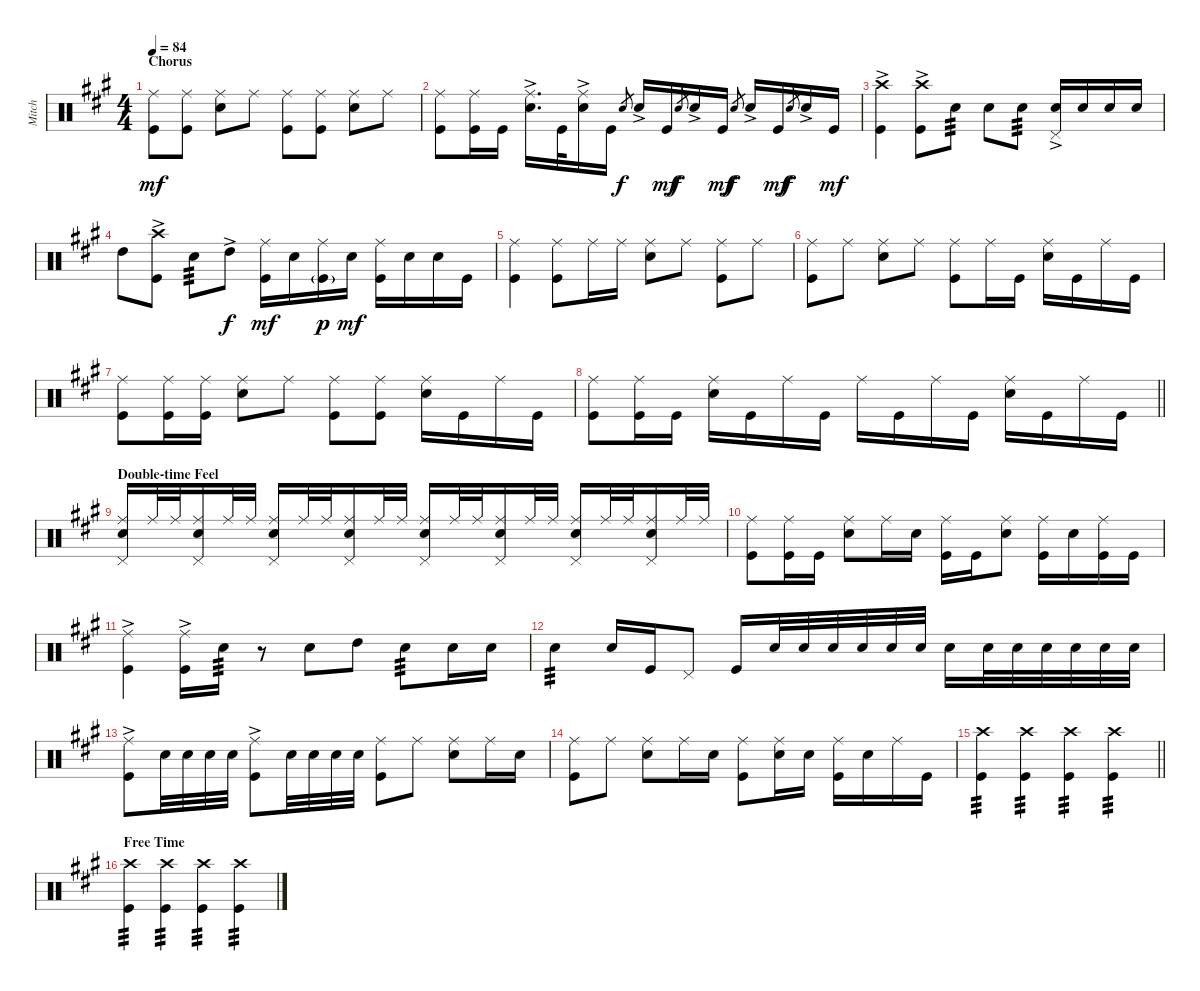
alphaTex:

\track ("Mitch" "Mitch") {instrument percussion}
\staff {score}
\articulation defaults
\ts (4 4)
\section ("" "Chorus")
\tempo 84
\clef neutral
\ks a
("Ride (middle)" "Kick (hit)").8{dy mf} ("Ride (middle)" "Kick (hit)").8 ("Ride (middle)" "Snare (hit) 2").8 "Ride (middle)".8 ("Ride (middle)" "Kick (hit)").8 ("Ride (middle)" "Kick (hit)").8 ("Ride (middle)" "Snare (hit) 2").8 "Ride (middle)".8 |
("Ride (middle)" "Kick (hit)").8 ("Ride (middle)" "Kick (hit)").16 "Kick (hit)".16 ("Ride (middle)" "Snare (hit) 2"{ac}).16{d} "Kick (hit)".32 ("Ride (middle)" "Snare (hit) 2"{ac}).16 "Kick (hit)".16 "Snare (hit) 2".8{gr dy f} "Snare (hit) 2"{ac}.16 "Kick (hit)".16{dy mf} "Snare (hit) 2".8{gr dy f} "Snare (hit) 2"{ac}.16 "Kick (hit)".16{dy mf} "Snare (hit) 2".8{gr dy f} "Snare (hit) 2"{ac}.16 "Kick (hit)".16{dy mf} "Snare (hit) 2".8{gr dy f} "Snare (hit) 2"{ac}.16 "Kick (hit)".16{dy mf} |
("Crash high (hit)"{ac} "Kick (hit)").4 ("Crash high (hit)"{ac} "Kick (hit)").8 "Snare (hit) 2".8{tp 3} "Snare (hit) 2".8 "Snare (hit) 2".8{tp 3} ("Snare (hit) 2"{ac} "Pedal Hi-Hat (hit)").16 "Snare (hit) 2".16 "Snare (hit) 2".16 "Snare (hit) 2".16 |
"High Tom (hit)".8 ("Crash high (hit)"{ac} "Kick (hit)").8 "Snare (hit) 2".8{tp 3} "High Tom (hit)"{ac}.8{dy f} ("Ride (middle)" "Kick (hit)").16{dy mf} "Snare (hit) 2".16 ("Ride (middle)" "Kick (hit)"{g}).16{dy p} "Snare (hit) 2".16{dy mf} ("Ride (middle)" "Kick (hit)").16 "Snare (hit) 2".16 "Snare (hit) 2".16 "Kick (hit)".16 |
("Ride (middle)" "Kick (hit)").4 ("Ride (middle)" "Kick (hit)").8 "Ride (middle)".16 "Ride (middle)".16 ("Ride (middle)" "Snare (hit) 2").8 "Ride (middle)".8 ("Ride (middle)" "Kick (hit)").8 "Ride (middle)".8 |
("Ride (middle)" "Kick (hit)").8 "Ride (middle)".8 ("Ride (middle)" "Snare (hit) 2").8 "Ride (middle)".8 ("Ride (middle)" "Kick (hit)").8 "Ride (middle)".16 "Kick (hit)".16 ("Ride (middle)" "Snare (hit) 2").16 "Kick (hit)".16 "Ride (middle)".16 "Kick (hit)".16 |
("Ride (middle)" "Kick (hit)").8 ("Ride (middle)" "Kick (hit)").16 ("Ride (middle)" "Kick (hit)").16 ("Ride (middle)" "Snare (hit) 2").8 "Ride (middle)".8 ("Ride (middle)" "Kick (hit)").8 ("Ride (middle)" "Kick (hit)").8 ("Ride (middle)" "Snare (hit) 2").16 "Kick (hit)".16 "Ride (middle)".16 "Kick (hit)".16 |
\barLineRight lightlight
("Ride (middle)" "Kick (hit)").8 ("Ride (middle)" "Kick (hit)").16 "Kick (hit)".16 ("Ride (middle)" "Snare (hit) 2").16 "Kick (hit)".16 "Ride (middle)".16 "Kick (hit)".16 "Ride (middle)".16 "Kick (hit)".16 "Ride (middle)".16 "Kick (hit)".16 ("Ride (middle)" "Snare (hit) 2").16 "Kick (hit)".16 "Ride (middle)".16 "Kick (hit)".16 |
\section ("" "Double-time Feel")
("Ride (middle)" "Snare (hit) 2" "Pedal Hi-Hat (hit)").16 "Ride (middle)".32 "Ride (middle)".32 ("Ride (middle)" "Snare (hit) 2" "Pedal Hi-Hat (hit)").16 "Ride (middle)".32 "Ride (middle)".32 ("Ride (middle)" "Snare (hit) 2" "Pedal Hi-Hat (hit)").16 "Ride (middle)".32 "Ride (middle)".32 ("Ride (middle)" "Snare (hit) 2" "Pedal Hi-Hat (hit)").16 "Ride (middle)".32 "Ride (middle)".32 ("Ride (middle)" "Snare (hit) 2" "Pedal Hi-Hat (hit)").16 "Ride (middle)".32 "Ride (middle)".32 ("Ride (middle)" "Snare (hit) 2" "Pedal Hi-Hat (hit)").16 "Ride (middle)".32 "Ride (middle)".32 ("Ride (middle)" "Snare (hit) 2" "Pedal Hi-Hat (hit)").16 "Ride (middle)".32 "Ride (middle)".32 ("Ride (middle)" "Snare (hit) 2" "Pedal Hi-Hat (hit)").16 "Ride (middle)".32 "Ride (middle)".32 |
("Ride (middle)" "Kick (hit)").8 ("Ride (middle)" "Kick (hit)").16 "Kick (hit)".16 ("Ride (middle)" "Snare (hit) 2").8 "Ride (middle)".16 "Snare (hit) 2".16 ("Ride (middle)" "Kick (hit)").16 "Kick (hit)".16 ("Ride (middle)" "Snare (hit) 2").8 ("Ride (middle)" "Kick (hit)").16 "Snare (hit) 2".16 ("Ride (middle)" "Kick (hit)").16 "Kick (hit)".16 |
("Ride (middle)"{ac} "Kick (hit)").4 ("Ride (middle)"{ac} "Kick (hit)").16 "Snare (hit) 2".16{tp 3} r.8 "Snare (hit) 2".8 "High Tom (hit)".8 "Snare (hit) 2".8{tp 3} "Snare (hit) 2".16 "Snare (hit) 2".16 |
"Snare (hit) 2".4{tp 3} "Snare (hit) 2".16 "Kick (hit)".16 "Pedal Hi-Hat (hit)".8 "Kick (hit)".16 "Snare (hit) 2".32 "Snare (hit) 2".32 "Snare (hit) 2".32 "Snare (hit) 2".32 "Snare (hit) 2".32 "Snare (hit) 2".32 "Snare (hit) 2".16 "Snare (hit) 2".32 "Snare (hit) 2".32 "Snare (hit) 2".32 "Snare (hit) 2".32 "Snare (hit) 2".32 "Snare (hit) 2".32 |
("Ride (middle)"{ac} "Kick (hit)").8 "Snare (hit) 2".32 "Snare (hit) 2".32 "Snare (hit) 2".32 "Snare (hit) 2".32 ("Ride (middle)"{ac} "Kick (hit)").8 "Snare (hit) 2".32 "Snare (hit) 2".32 "Snare (hit) 2".32 "Snare (hit) 2".32 ("Ride (middle)" "Kick (hit)").8 "Ride (middle)".8 ("Ride (middle)" "Snare (hit) 2").8 "Ride (middle)".16 "Snare (hit) 2".16 |
("Ride (middle)" "Kick (hit)").8 "Ride (middle)".8 ("Ride (middle)" "Snare (hit) 2").8 "Ride (middle)".16 "Snare (hit) 2".16 ("Ride (middle)" "Kick (hit)").8 ("Ride (middle)" "Snare (hit) 2").16 "Snare (hit) 2".16 ("Ride (middle)" "Kick (hit)").16 "Snare (hit) 2".16 "Ride (middle)".16 "Kick (hit)".16 |
\barLineRight lightlight
("Crash high (hit)" "Kick (hit)").4{tp 3} ("Crash high (hit)" "Kick (hit)").4{tp 3} ("Crash high (hit)" "Kick (hit)").4{tp 3} ("Crash high (hit)" "Kick (hit)").4{tp 3} |
\section ("" "Free Time")
("Crash high (hit)" "Kick (hit)").4{tp 3} ("Crash high (hit)" "Kick (hit)").4{tp 3} ("Crash high (hit)" "Kick (hit)").4{tp 3} ("Crash high (hit)" "Kick (hit)").4{tp 3}
